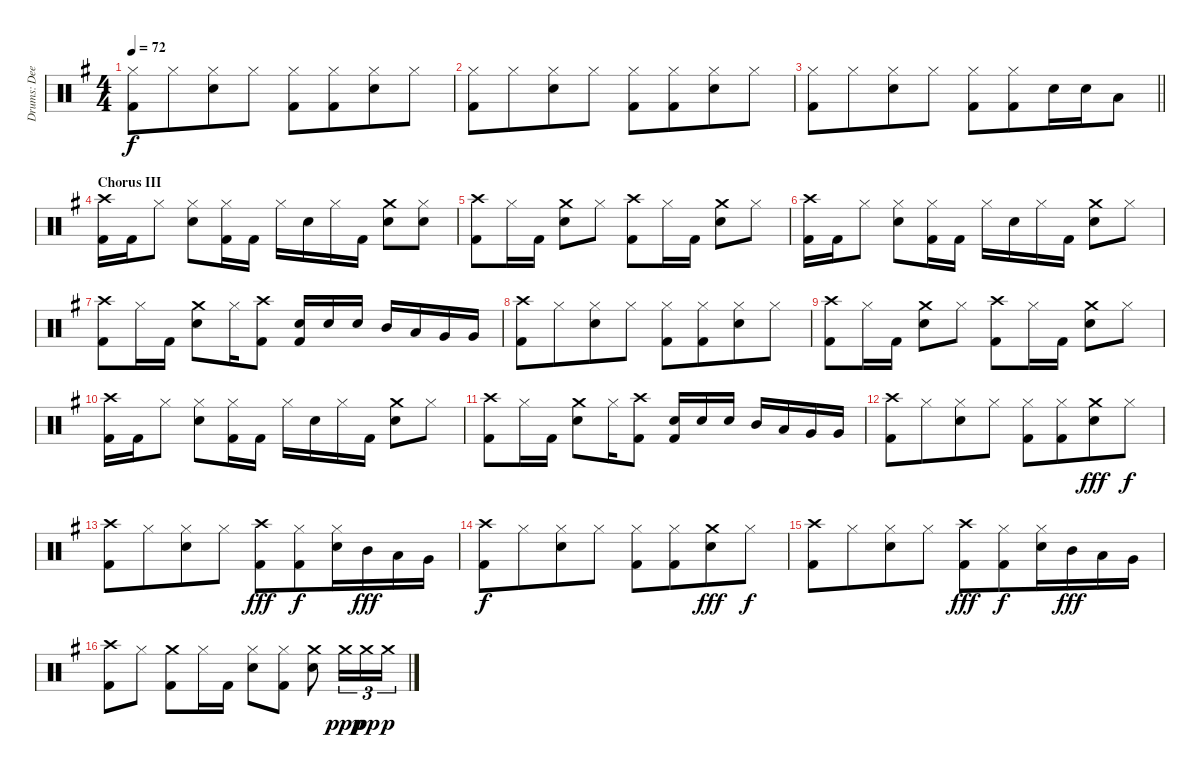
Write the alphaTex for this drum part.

\track ("Drums: Deen" "Drums: Dee") {instrument percussion}
\staff {score}
\articulation defaults
\ts (4 4)
\tempo 72
\clef neutral
\ks g
("Hi-Hat (closed)" "Kick (hit) 2").8{dy f} "Hi-Hat (closed)".8{beam merge} ("Hi-Hat (closed)" "Electric Snare (hit)").8 "Hi-Hat (closed)".8 ("Hi-Hat (closed)" "Kick (hit) 2").8 ("Hi-Hat (closed)" "Kick (hit) 2").8{beam merge} ("Hi-Hat (closed)" "Electric Snare (hit)").8 "Hi-Hat (closed)".8 |
("Hi-Hat (closed)" "Kick (hit) 2").8 "Hi-Hat (closed)".8{beam merge} ("Hi-Hat (closed)" "Electric Snare (hit)").8 "Hi-Hat (closed)".8 ("Hi-Hat (closed)" "Kick (hit) 2").8 ("Hi-Hat (closed)" "Kick (hit) 2").8{beam merge} ("Hi-Hat (closed)" "Electric Snare (hit)").8 "Hi-Hat (closed)".8 |
\barLineRight lightlight
("Hi-Hat (closed)" "Kick (hit) 2").8 "Hi-Hat (closed)".8{beam merge} ("Hi-Hat (closed)" "Electric Snare (hit)").8 "Hi-Hat (closed)".8 ("Hi-Hat (closed)" "Kick (hit) 2").8 ("Hi-Hat (closed)" "Kick (hit) 2").8{beam merge} "Electric Snare (hit)".16{beam merge} "Electric Snare (hit)".16{beam merge} "Low Tom (hit)".8 |
\section ("" "Chorus III")
("Crash high (hit)" "Kick (hit) 2").16 "Kick (hit) 2".16 "Hi-Hat (closed)".8 ("Hi-Hat (closed)" "Electric Snare (hit)").8 ("Hi-Hat (closed)" "Kick (hit) 2").16 "Kick (hit) 2".16 "Hi-Hat (closed)".16 "Electric Snare (hit)".16 "Hi-Hat (closed)".16 "Kick (hit) 2".16 ("Crash medium (hit)" "Electric Snare (hit)").8 ("Hi-Hat (closed)" "Electric Snare (hit)").8 |
("Crash high (hit)" "Kick (hit) 2").8 "Hi-Hat (closed)".16 "Kick (hit) 2".16 ("Crash medium (hit)" "Electric Snare (hit)").8 "Hi-Hat (closed)".8 ("Crash high (hit)" "Kick (hit) 2").8 "Hi-Hat (closed)".16 "Kick (hit) 2".16 ("Crash medium (hit)" "Electric Snare (hit)").8 "Hi-Hat (closed)".8 |
("Crash high (hit)" "Kick (hit) 2").16 "Kick (hit) 2".16 "Hi-Hat (closed)".8 ("Hi-Hat (closed)" "Electric Snare (hit)").8 ("Hi-Hat (closed)" "Kick (hit) 2").16 "Kick (hit) 2".16 "Hi-Hat (closed)".16 "Electric Snare (hit)".16 "Hi-Hat (closed)".16 "Kick (hit) 2".16 ("Crash medium (hit)" "Electric Snare (hit)").8 "Hi-Hat (closed)".8 |
("Crash high (hit)" "Kick (hit) 2").8 "Hi-Hat (closed)".16 "Kick (hit) 2".16 ("Crash medium (hit)" "Electric Snare (hit)").8 "Hi-Hat (closed)".16 ("Crash high (hit)" "Kick (hit) 2").8 ("Electric Snare (hit)" "Kick (hit) 2").16 "Electric Snare (hit)".16 "Electric Snare (hit)".16{beam split} "Mid Tom (hit)".16 "Low Tom (hit)".16 "Very Low Tom (hit)".16 "Very Low Tom (hit)".16 |
("Crash high (hit)" "Kick (hit) 2").8 "Hi-Hat (closed)".8{beam merge} ("Hi-Hat (closed)" "Electric Snare (hit)").8 "Hi-Hat (closed)".8 ("Hi-Hat (closed)" "Kick (hit) 2").8 ("Hi-Hat (closed)" "Kick (hit) 2").8{beam merge} ("Hi-Hat (closed)" "Electric Snare (hit)").8 "Hi-Hat (closed)".8 |
("Crash high (hit)" "Kick (hit) 2").8 "Hi-Hat (closed)".16 "Kick (hit) 2".16 ("Crash medium (hit)" "Electric Snare (hit)").8 "Hi-Hat (closed)".8 ("Crash high (hit)" "Kick (hit) 2").8 "Hi-Hat (closed)".16 "Kick (hit) 2".16 ("Crash medium (hit)" "Electric Snare (hit)").8 "Hi-Hat (closed)".8 |
("Crash high (hit)" "Kick (hit) 2").16 "Kick (hit) 2".16 "Hi-Hat (closed)".8 ("Hi-Hat (closed)" "Electric Snare (hit)").8 ("Hi-Hat (closed)" "Kick (hit) 2").16 "Kick (hit) 2".16 "Hi-Hat (closed)".16 "Electric Snare (hit)".16 "Hi-Hat (closed)".16 "Kick (hit) 2".16 ("Crash medium (hit)" "Electric Snare (hit)").8 "Hi-Hat (closed)".8 |
("Crash high (hit)" "Kick (hit) 2").8 "Hi-Hat (closed)".16 "Kick (hit) 2".16 ("Crash medium (hit)" "Electric Snare (hit)").8 "Hi-Hat (closed)".16 ("Crash high (hit)" "Kick (hit) 2").8 ("Electric Snare (hit)" "Kick (hit) 2").16 "Electric Snare (hit)".16 "Electric Snare (hit)".16{beam split} "Mid Tom (hit)".16 "Low Tom (hit)".16 "Very Low Tom (hit)".16 "Very Low Tom (hit)".16 |
("Crash high (hit)" "Kick (hit) 2").8 "Hi-Hat (closed)".8{beam merge} ("Hi-Hat (closed)" "Electric Snare (hit)").8 "Hi-Hat (closed)".8 ("Hi-Hat (closed)" "Kick (hit) 2").8 ("Hi-Hat (closed)" "Kick (hit) 2").8{beam merge} ("Crash medium (hit)" "Electric Snare (hit)").8{dy fff} "Hi-Hat (closed)".8{dy f} |
("Crash high (hit)" "Kick (hit) 2").8 "Hi-Hat (closed)".8{beam merge} ("Hi-Hat (closed)" "Electric Snare (hit)").8 "Hi-Hat (closed)".8 ("Crash high (hit)" "Kick (hit) 2").8{dy fff} ("Hi-Hat (closed)" "Kick (hit) 2").8{dy f beam merge} ("Hi-Hat (closed)" "Electric Snare (hit)").16 "Mid Tom (hit)".16{dy fff} "Low Tom (hit)".16 "Very Low Tom (hit)".16 |
("Crash high (hit)" "Kick (hit) 2").8{dy f} "Hi-Hat (closed)".8{beam merge} ("Hi-Hat (closed)" "Electric Snare (hit)").8 "Hi-Hat (closed)".8 ("Hi-Hat (closed)" "Kick (hit) 2").8 ("Hi-Hat (closed)" "Kick (hit) 2").8{beam merge} ("Crash medium (hit)" "Electric Snare (hit)").8{dy fff} "Hi-Hat (closed)".8{dy f} |
("Crash high (hit)" "Kick (hit) 2").8 "Hi-Hat (closed)".8{beam merge} ("Hi-Hat (closed)" "Electric Snare (hit)").8 "Hi-Hat (closed)".8 ("Crash high (hit)" "Kick (hit) 2").8{dy fff} ("Hi-Hat (closed)" "Kick (hit) 2").8{dy f beam merge} ("Hi-Hat (closed)" "Electric Snare (hit)").16 "Mid Tom (hit)".16{dy fff} "Low Tom (hit)".16 "Very Low Tom (hit)".16 |
("Crash high (hit)" "Kick (hit) 2").8 "Hi-Hat (closed)".8 ("Crash medium (hit)" "Kick (hit) 2").8 "Hi-Hat (closed)".16 "Kick (hit) 2".16 ("Hi-Hat (closed)" "Electric Snare (hit)").8 ("Hi-Hat (closed)" "Kick (hit) 2").8 ("Crash medium (hit)" "Electric Snare (hit)").8 "Crash medium (hit)".16{tu (3 2) dy ppp} "Crash medium (hit)".16{tu (3 2) dy pp} "Crash medium (hit)".16{tu (3 2) dy p}
